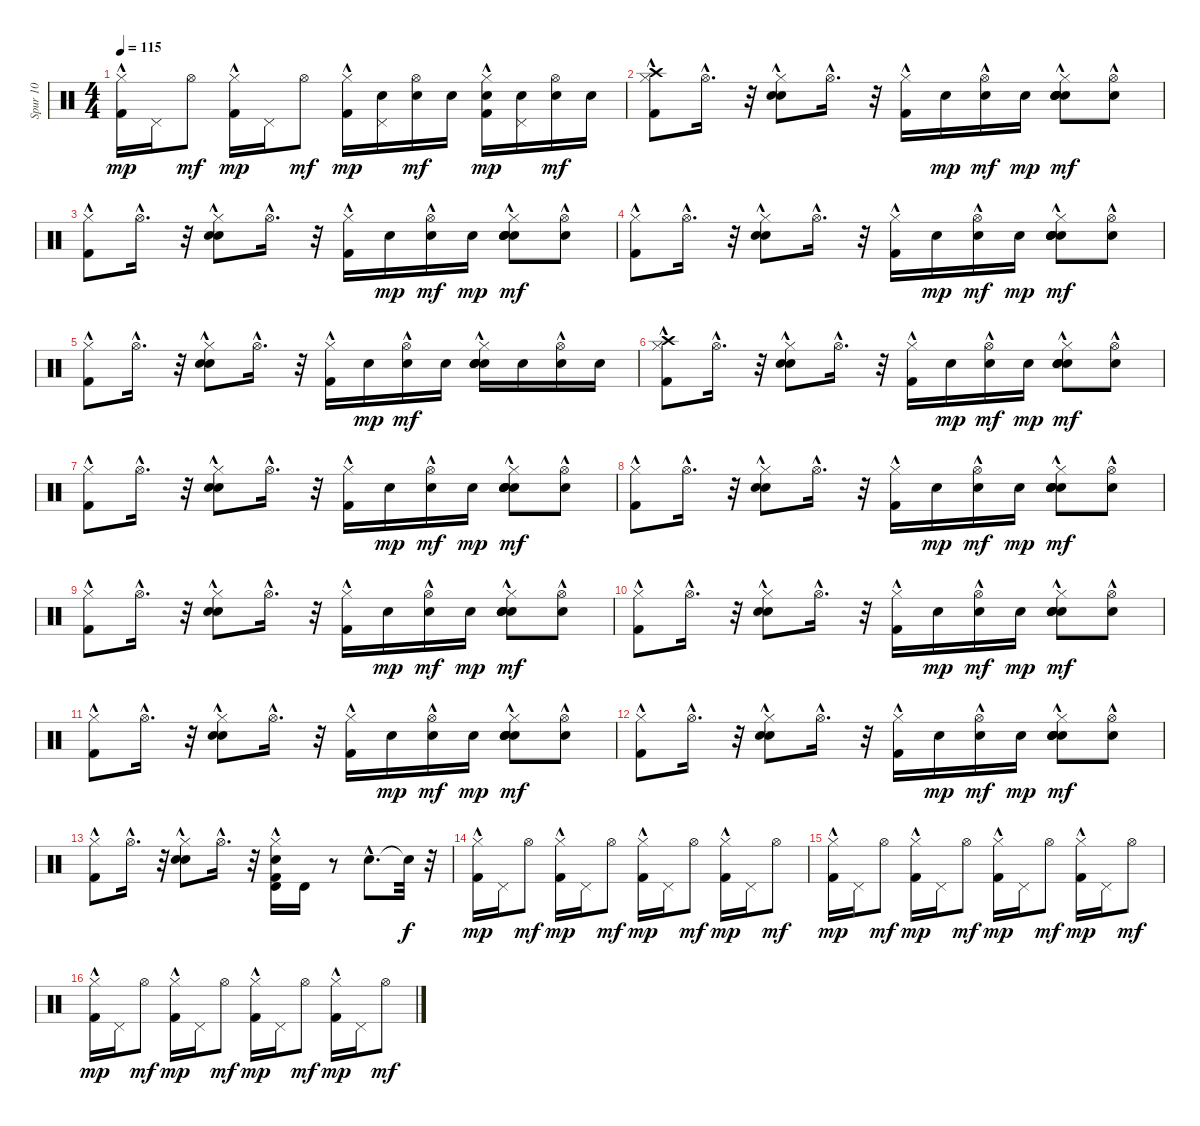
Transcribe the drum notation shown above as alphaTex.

\track ("Spur 10" "Spur 10") {instrument percussion}
\staff {score}
\articulation defaults
\ts (4 4)
\tempo 115
\clef neutral
\ks c
("Hi-Hat (closed)" "Kick (hit) 2"{hac}).16{dy mp} "Pedal Hi-Hat (hit)".16 "Hi-Hat (open)".8{dy mf} ("Hi-Hat (closed)" "Kick (hit) 2"{hac}).16{dy mp} "Pedal Hi-Hat (hit)".16 "Hi-Hat (open)".8{dy mf} ("Hi-Hat (closed)" "Kick (hit) 2"{hac}).16{dy mp} ("Snare (hit) 2" "Pedal Hi-Hat (hit)").16 ("Snare (hit) 2" "Hi-Hat (open)").16{dy mf} "Snare (hit) 2".16 ("Snare (hit) 2" "Hi-Hat (closed)" "Kick (hit) 2"{hac}).16{dy mp} ("Snare (hit) 2" "Pedal Hi-Hat (hit)").16 ("Snare (hit) 2" "Hi-Hat (open)").16{dy mf} "Snare (hit) 2".16 |
("Crash high (hit)"{hac} "Hi-Hat (closed)"{hac} "Kick (hit) 2"{hac}).8 "Hi-Hat (open)"{hac}.16{d} r.32 ("Hi-Hat (closed)"{hac} "Hand Clap (hit)"{hac} "Snare (hit) 2"{hac}).8 "Hi-Hat (open)"{hac}.16{d} r.32 ("Hi-Hat (closed)"{hac} "Kick (hit) 2"{hac}).16 "Snare (hit) 2".16{dy mp} ("Snare (hit) 2" "Hi-Hat (open)"{hac}).16{dy mf} "Snare (hit) 2".16{dy mp} ("Snare (hit) 2" "Snare (hit) 2" "Hi-Hat (closed)"{hac} "Snare (hit) 2" "Hand Clap (hit)"{hac}).8{dy mf} ("Snare (hit) 2" "Hi-Hat (open)"{hac}).8 |
("Hi-Hat (closed)"{hac} "Kick (hit) 2"{hac}).8 "Hi-Hat (open)"{hac}.16{d} r.32 ("Hi-Hat (closed)"{hac} "Snare (hit) 2"{hac} "Hand Clap (hit)"{hac}).8 "Hi-Hat (open)"{hac}.16{d} r.32 ("Hi-Hat (closed)"{hac} "Kick (hit) 2"{hac}).16 "Snare (hit) 2".16{dy mp} ("Snare (hit) 2" "Hi-Hat (open)"{hac}).16{dy mf} "Snare (hit) 2".16{dy mp} ("Snare (hit) 2" "Snare (hit) 2" "Hi-Hat (closed)"{hac} "Snare (hit) 2" "Hand Clap (hit)"{hac}).8{dy mf} ("Snare (hit) 2" "Hi-Hat (open)"{hac}).8 |
("Hi-Hat (closed)"{hac} "Kick (hit) 2"{hac}).8 "Hi-Hat (open)"{hac}.16{d} r.32 ("Hi-Hat (closed)"{hac} "Hand Clap (hit)"{hac} "Snare (hit) 2"{hac}).8 "Hi-Hat (open)"{hac}.16{d} r.32 ("Hi-Hat (closed)"{hac} "Kick (hit) 2"{hac}).16 "Snare (hit) 2".16{dy mp} ("Snare (hit) 2" "Hi-Hat (open)"{hac}).16{dy mf} "Snare (hit) 2".16{dy mp} ("Snare (hit) 2" "Snare (hit) 2" "Hi-Hat (closed)"{hac} "Snare (hit) 2" "Hand Clap (hit)"{hac}).8{dy mf} ("Snare (hit) 2" "Hi-Hat (open)"{hac}).8 |
("Hi-Hat (closed)"{hac} "Kick (hit) 2"{hac}).8 "Hi-Hat (open)"{hac}.16{d} r.32 ("Hi-Hat (closed)"{hac} "Snare (hit) 2"{hac} "Hand Clap (hit)"{hac}).8 "Hi-Hat (open)"{hac}.16{d} r.32 ("Hi-Hat (closed)"{hac} "Kick (hit) 2"{hac}).16 "Snare (hit) 2".16{dy mp} ("Snare (hit) 2" "Hi-Hat (open)"{hac}).16{dy mf} "Snare (hit) 2".16 ("Snare (hit) 2" "Snare (hit) 2" "Hi-Hat (closed)"{hac} "Snare (hit) 2" "Hand Clap (hit)"{hac}).16 "Snare (hit) 2".16 ("Snare (hit) 2" "Hi-Hat (open)"{hac}).16 "Snare (hit) 2".16 |
("Crash high (hit)"{hac} "Hi-Hat (closed)"{hac} "Kick (hit) 2"{hac}).8 "Hi-Hat (open)"{hac}.16{d} r.32 ("Hi-Hat (closed)"{hac} "Hand Clap (hit)"{hac} "Snare (hit) 2"{hac}).8 "Hi-Hat (open)"{hac}.16{d} r.32 ("Hi-Hat (closed)"{hac} "Kick (hit) 2"{hac}).16 "Snare (hit) 2".16{dy mp} ("Snare (hit) 2" "Hi-Hat (open)"{hac}).16{dy mf} "Snare (hit) 2".16{dy mp} ("Snare (hit) 2" "Snare (hit) 2" "Hi-Hat (closed)"{hac} "Snare (hit) 2" "Hand Clap (hit)"{hac}).8{dy mf} ("Snare (hit) 2" "Hi-Hat (open)"{hac}).8 |
("Hi-Hat (closed)"{hac} "Kick (hit) 2"{hac}).8 "Hi-Hat (open)"{hac}.16{d} r.32 ("Hi-Hat (closed)"{hac} "Snare (hit) 2"{hac} "Hand Clap (hit)"{hac}).8 "Hi-Hat (open)"{hac}.16{d} r.32 ("Hi-Hat (closed)"{hac} "Kick (hit) 2"{hac}).16 "Snare (hit) 2".16{dy mp} ("Snare (hit) 2" "Hi-Hat (open)"{hac}).16{dy mf} "Snare (hit) 2".16{dy mp} ("Snare (hit) 2" "Snare (hit) 2" "Hi-Hat (closed)"{hac} "Snare (hit) 2" "Hand Clap (hit)"{hac}).8{dy mf} ("Snare (hit) 2" "Hi-Hat (open)"{hac}).8 |
("Hi-Hat (closed)"{hac} "Kick (hit) 2"{hac}).8 "Hi-Hat (open)"{hac}.16{d} r.32 ("Hi-Hat (closed)"{hac} "Hand Clap (hit)"{hac} "Snare (hit) 2"{hac}).8 "Hi-Hat (open)"{hac}.16{d} r.32 ("Hi-Hat (closed)"{hac} "Kick (hit) 2"{hac}).16 "Snare (hit) 2".16{dy mp} ("Snare (hit) 2" "Hi-Hat (open)"{hac}).16{dy mf} "Snare (hit) 2".16{dy mp} ("Snare (hit) 2" "Snare (hit) 2" "Hi-Hat (closed)"{hac} "Snare (hit) 2" "Hand Clap (hit)"{hac}).8{dy mf} ("Snare (hit) 2" "Hi-Hat (open)"{hac}).8 |
("Hi-Hat (closed)"{hac} "Kick (hit) 2"{hac}).8 "Hi-Hat (open)"{hac}.16{d} r.32 ("Hi-Hat (closed)"{hac} "Snare (hit) 2"{hac} "Hand Clap (hit)"{hac}).8 "Hi-Hat (open)"{hac}.16{d} r.32 ("Hi-Hat (closed)"{hac} "Kick (hit) 2"{hac}).16 "Snare (hit) 2".16{dy mp} ("Snare (hit) 2" "Hi-Hat (open)"{hac}).16{dy mf} "Snare (hit) 2".16{dy mp} ("Snare (hit) 2" "Snare (hit) 2" "Hi-Hat (closed)"{hac} "Snare (hit) 2" "Hand Clap (hit)"{hac}).8{dy mf} ("Snare (hit) 2" "Hi-Hat (open)"{hac}).8 |
("Hi-Hat (closed)"{hac} "Kick (hit) 2"{hac}).8 "Hi-Hat (open)"{hac}.16{d} r.32 ("Hi-Hat (closed)"{hac} "Hand Clap (hit)"{hac} "Snare (hit) 2"{hac}).8 "Hi-Hat (open)"{hac}.16{d} r.32 ("Hi-Hat (closed)"{hac} "Kick (hit) 2"{hac}).16 "Snare (hit) 2".16{dy mp} ("Snare (hit) 2" "Hi-Hat (open)"{hac}).16{dy mf} "Snare (hit) 2".16{dy mp} ("Snare (hit) 2" "Snare (hit) 2" "Hi-Hat (closed)"{hac} "Snare (hit) 2" "Hand Clap (hit)"{hac}).8{dy mf} ("Snare (hit) 2" "Hi-Hat (open)"{hac}).8 |
("Hi-Hat (closed)"{hac} "Kick (hit) 2"{hac}).8 "Hi-Hat (open)"{hac}.16{d} r.32 ("Hi-Hat (closed)"{hac} "Snare (hit) 2"{hac} "Hand Clap (hit)"{hac}).8 "Hi-Hat (open)"{hac}.16{d} r.32 ("Hi-Hat (closed)"{hac} "Kick (hit) 2"{hac}).16 "Snare (hit) 2".16{dy mp} ("Snare (hit) 2" "Hi-Hat (open)"{hac}).16{dy mf} "Snare (hit) 2".16{dy mp} ("Snare (hit) 2" "Snare (hit) 2" "Hi-Hat (closed)"{hac} "Snare (hit) 2" "Hand Clap (hit)"{hac}).8{dy mf} ("Snare (hit) 2" "Hi-Hat (open)"{hac}).8 |
("Hi-Hat (closed)"{hac} "Kick (hit) 2"{hac}).8 "Hi-Hat (open)"{hac}.16{d} r.32 ("Hi-Hat (closed)"{hac} "Hand Clap (hit)"{hac} "Snare (hit) 2"{hac}).8 "Hi-Hat (open)"{hac}.16{d} r.32 ("Hi-Hat (closed)"{hac} "Kick (hit) 2"{hac}).16 "Snare (hit) 2".16{dy mp} ("Snare (hit) 2" "Hi-Hat (open)"{hac}).16{dy mf} "Snare (hit) 2".16{dy mp} ("Snare (hit) 2" "Snare (hit) 2" "Hi-Hat (closed)"{hac} "Snare (hit) 2" "Hand Clap (hit)"{hac}).8{dy mf} ("Snare (hit) 2" "Hi-Hat (open)"{hac}).8 |
("Hi-Hat (closed)"{hac} "Kick (hit) 2"{hac}).8 "Hi-Hat (open)"{hac}.16{d} r.32 ("Hi-Hat (closed)"{hac} "Snare (hit) 2"{hac} "Hand Clap (hit)"{hac}).8 "Hi-Hat (open)"{hac}.16{d} r.32 ("Snare (hit) 2"{hac} "Timbale high (hit)" "Hi-Hat (closed)"{hac} "Kick (hit) 2"{hac}).16 "Timbale high (hit)".16 r.8 "Snare (hit) 2"{hac}.8{d} "Snare (hit)"{t}.32{dy f} r.32 |
("Hi-Hat (closed)" "Kick (hit) 2"{hac}).16{dy mp} "Pedal Hi-Hat (hit)".16 "Hi-Hat (open)".8{dy mf} ("Hi-Hat (closed)" "Kick (hit) 2"{hac}).16{dy mp} "Pedal Hi-Hat (hit)".16 "Hi-Hat (open)".8{dy mf} ("Hi-Hat (closed)" "Kick (hit) 2"{hac}).16{dy mp} "Pedal Hi-Hat (hit)".16 "Hi-Hat (open)".8{dy mf} ("Hi-Hat (closed)" "Kick (hit) 2"{hac}).16{dy mp} "Pedal Hi-Hat (hit)".16 "Hi-Hat (open)".8{dy mf} |
("Hi-Hat (closed)" "Kick (hit) 2"{hac}).16{dy mp} "Pedal Hi-Hat (hit)".16 "Hi-Hat (open)".8{dy mf} ("Hi-Hat (closed)" "Kick (hit) 2"{hac}).16{dy mp} "Pedal Hi-Hat (hit)".16 "Hi-Hat (open)".8{dy mf} ("Hi-Hat (closed)" "Kick (hit) 2"{hac}).16{dy mp} "Pedal Hi-Hat (hit)".16 "Hi-Hat (open)".8{dy mf} ("Hi-Hat (closed)" "Kick (hit) 2"{hac}).16{dy mp} "Pedal Hi-Hat (hit)".16 "Hi-Hat (open)".8{dy mf} |
("Hi-Hat (closed)" "Kick (hit) 2"{hac}).16{dy mp} "Pedal Hi-Hat (hit)".16 "Hi-Hat (open)".8{dy mf} ("Hi-Hat (closed)" "Kick (hit) 2"{hac}).16{dy mp} "Pedal Hi-Hat (hit)".16 "Hi-Hat (open)".8{dy mf} ("Hi-Hat (closed)" "Kick (hit) 2"{hac}).16{dy mp} "Pedal Hi-Hat (hit)".16 "Hi-Hat (open)".8{dy mf} ("Hi-Hat (closed)" "Kick (hit) 2"{hac}).16{dy mp} "Pedal Hi-Hat (hit)".16 "Hi-Hat (open)".8{dy mf}
